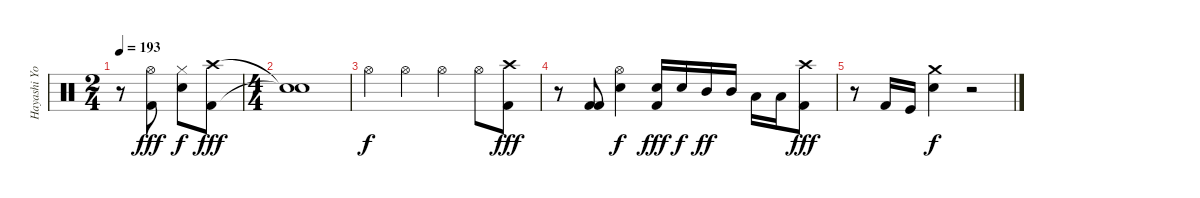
\track ("Hayashi Yoshiki(Yoshiki)" "Hayashi Yo") {instrument percussion}
\staff {score}
\articulation defaults
\ts (2 4)
\tempo 193
\clef neutral
\ks c
r.8{dy fff} ("Hi-Hat (open)" "Kick (hit) 2").8 ("Hi-Hat (closed)" "Electric Snare (hit)").8{dy f} ("Crash high (hit)" "Kick (hit) 2").8{dy fff} |
\ts (4 4)
("Snare (hit)"{t} "Snare (hit)"{t}).1 |
"Hi-Hat (open)".4{dy f} "Hi-Hat (open)".4 "Hi-Hat (open)".4 "Hi-Hat (open)".8 ("Crash high (hit)" "Kick (hit) 2").8{dy fff} |
r.8 ("Kick (hit) 2" "Kick (hit) 2").8 ("Hi-Hat (open)" "Electric Snare (hit)").4{dy f} ("Electric Snare (hit)" "Kick (hit) 2").16{dy fff} "Electric Snare (hit)".16{dy f} "Mid Tom (hit)".16{dy ff} "Mid Tom (hit)".16 "Low Tom (hit)".16 "Low Tom (hit)".16 ("Crash high (hit)" "Kick (hit) 2").8{dy fff} |
r.8 "Kick (hit) 2".16 "Kick (hit)".16 ("Crash medium (hit)" "Electric Snare (hit)").4{dy f} r.2
